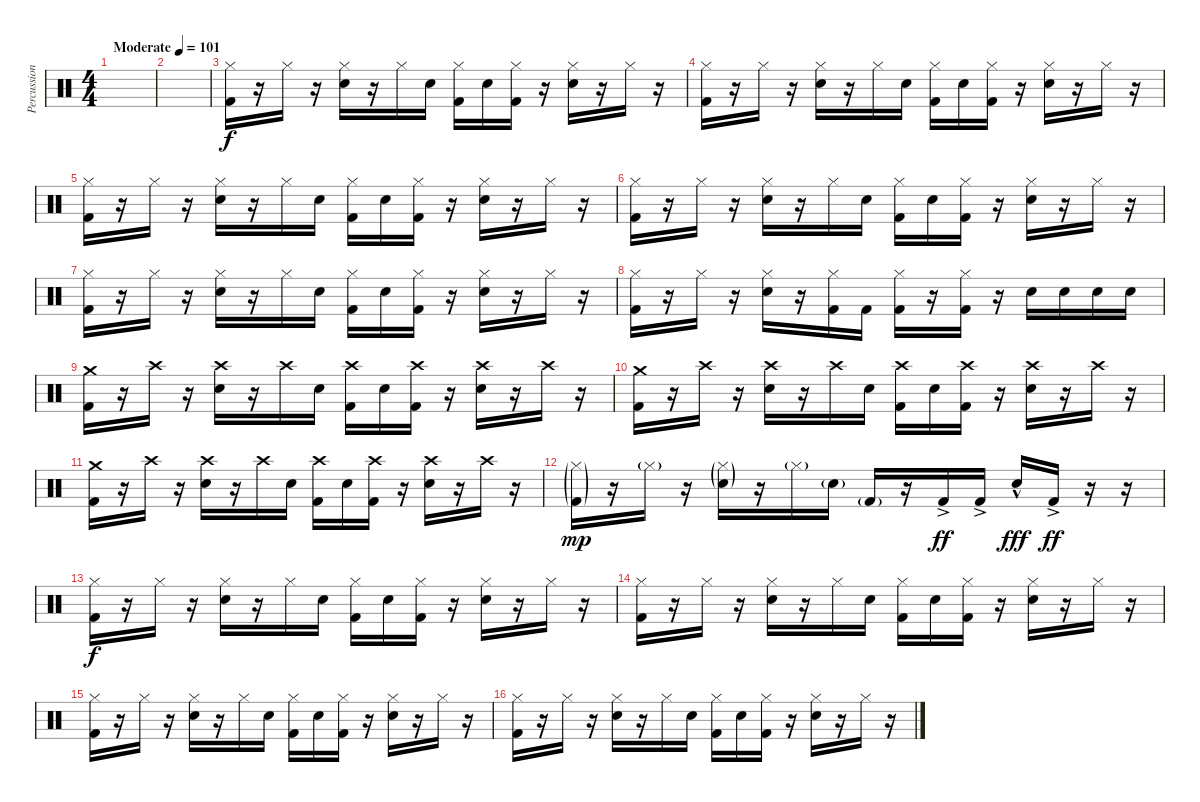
\track ("Percussioni" "Percussion") {instrument percussion}
\staff {score}
\articulation defaults
\ts (4 4)
\tempo (101 "Moderate")
\clef neutral
\ks c
|
|
("Hi-Hat (closed)" "Kick (hit) 2").16 r.16 "Hi-Hat (closed)".16 r.16 ("Hi-Hat (closed)" "Electric Snare (hit)").16 r.16 "Hi-Hat (closed)".16 "Electric Snare (hit)".16 ("Hi-Hat (closed)" "Kick (hit) 2").16 "Electric Snare (hit)".16 ("Hi-Hat (closed)" "Kick (hit) 2").16 r.16 ("Hi-Hat (closed)" "Electric Snare (hit)").16 r.16 "Hi-Hat (closed)".16 r.16 |
("Hi-Hat (closed)" "Kick (hit) 2").16 r.16 "Hi-Hat (closed)".16 r.16 ("Hi-Hat (closed)" "Electric Snare (hit)").16 r.16 "Hi-Hat (closed)".16 "Electric Snare (hit)".16 ("Hi-Hat (closed)" "Kick (hit) 2").16 "Electric Snare (hit)".16 ("Hi-Hat (closed)" "Kick (hit) 2").16 r.16 ("Hi-Hat (closed)" "Electric Snare (hit)").16 r.16 "Hi-Hat (closed)".16 r.16 |
("Hi-Hat (closed)" "Kick (hit) 2").16 r.16 "Hi-Hat (closed)".16 r.16 ("Hi-Hat (closed)" "Electric Snare (hit)").16 r.16 "Hi-Hat (closed)".16 "Electric Snare (hit)".16 ("Hi-Hat (closed)" "Kick (hit) 2").16 "Electric Snare (hit)".16 ("Hi-Hat (closed)" "Kick (hit) 2").16 r.16 ("Hi-Hat (closed)" "Electric Snare (hit)").16 r.16 "Hi-Hat (closed)".16 r.16 |
("Hi-Hat (closed)" "Kick (hit) 2").16 r.16 "Hi-Hat (closed)".16 r.16 ("Hi-Hat (closed)" "Electric Snare (hit)").16 r.16 "Hi-Hat (closed)".16 "Electric Snare (hit)".16 ("Hi-Hat (closed)" "Kick (hit) 2").16 "Electric Snare (hit)".16 ("Hi-Hat (closed)" "Kick (hit) 2").16 r.16 ("Hi-Hat (closed)" "Electric Snare (hit)").16 r.16 "Hi-Hat (closed)".16 r.16 |
("Hi-Hat (closed)" "Kick (hit) 2").16 r.16 "Hi-Hat (closed)".16 r.16 ("Hi-Hat (closed)" "Electric Snare (hit)").16 r.16 "Hi-Hat (closed)".16 "Electric Snare (hit)".16 ("Hi-Hat (closed)" "Kick (hit) 2").16 "Electric Snare (hit)".16 ("Hi-Hat (closed)" "Kick (hit) 2").16 r.16 ("Hi-Hat (closed)" "Electric Snare (hit)").16 r.16 "Hi-Hat (closed)".16 r.16 |
("Hi-Hat (closed)" "Kick (hit) 2").16 r.16 "Hi-Hat (closed)".16 r.16 ("Hi-Hat (closed)" "Electric Snare (hit)").16 r.16 ("Hi-Hat (closed)" "Kick (hit) 2").16 "Kick (hit) 2".16 ("Hi-Hat (closed)" "Kick (hit) 2").16 r.16 ("Hi-Hat (closed)" "Kick (hit) 2").16 r.16 "Electric Snare (hit)".16 "Electric Snare (hit)".16 "Electric Snare (hit)".16 "Electric Snare (hit)".16 |
("Crash medium (hit)" "Kick (hit) 2").16 r.16 "Crash high (hit)".16 r.16 ("Crash high (hit)" "Electric Snare (hit)").16 r.16 "Crash high (hit)".16 "Electric Snare (hit)".16 ("Crash high (hit)" "Kick (hit) 2").16 "Electric Snare (hit)".16 ("Crash high (hit)" "Kick (hit) 2").16 r.16 ("Crash high (hit)" "Electric Snare (hit)").16 r.16 "Crash high (hit)".16 r.16 |
("Crash medium (hit)" "Kick (hit) 2").16 r.16 "Crash high (hit)".16 r.16 ("Crash high (hit)" "Electric Snare (hit)").16 r.16 "Crash high (hit)".16 "Electric Snare (hit)".16 ("Crash high (hit)" "Kick (hit) 2").16 "Electric Snare (hit)".16 ("Crash high (hit)" "Kick (hit) 2").16 r.16 ("Crash high (hit)" "Electric Snare (hit)").16 r.16 "Crash high (hit)".16 r.16 |
("Crash medium (hit)" "Kick (hit) 2").16 r.16 "Crash high (hit)".16 r.16 ("Crash high (hit)" "Electric Snare (hit)").16 r.16 "Crash high (hit)".16 "Electric Snare (hit)".16 ("Crash high (hit)" "Kick (hit) 2").16 "Electric Snare (hit)".16 ("Crash high (hit)" "Kick (hit) 2").16 r.16 ("Crash high (hit)" "Electric Snare (hit)").16 r.16 "Crash high (hit)".16 r.16 |
("Hi-Hat (closed)"{g} "Kick (hit) 2"{g}).16{dy mp} r.16 "Hi-Hat (closed)"{g}.16 r.16 ("Hi-Hat (closed)"{g} "Electric Snare (hit)"{g}).16 r.16 "Hi-Hat (closed)"{g}.16 "Electric Snare (hit)"{g}.16 "Kick (hit) 2"{g}.16 r.16 "Kick (hit) 2"{ac}.16{dy ff} "Kick (hit) 2"{ac}.16 "Electric Snare (hit)"{hac}.16{dy fff} "Kick (hit) 2"{ac}.16{dy ff} r.16 r.16 |
("Hi-Hat (closed)" "Kick (hit) 2").16{dy f} r.16 "Hi-Hat (closed)".16 r.16 ("Hi-Hat (closed)" "Electric Snare (hit)").16 r.16 "Hi-Hat (closed)".16 "Electric Snare (hit)".16 ("Hi-Hat (closed)" "Kick (hit) 2").16 "Electric Snare (hit)".16 ("Hi-Hat (closed)" "Kick (hit) 2").16 r.16 ("Hi-Hat (closed)" "Electric Snare (hit)").16 r.16 "Hi-Hat (closed)".16 r.16 |
("Hi-Hat (closed)" "Kick (hit) 2").16 r.16 "Hi-Hat (closed)".16 r.16 ("Hi-Hat (closed)" "Electric Snare (hit)").16 r.16 "Hi-Hat (closed)".16 "Electric Snare (hit)".16 ("Hi-Hat (closed)" "Kick (hit) 2").16 "Electric Snare (hit)".16 ("Hi-Hat (closed)" "Kick (hit) 2").16 r.16 ("Hi-Hat (closed)" "Electric Snare (hit)").16 r.16 "Hi-Hat (closed)".16 r.16 |
("Hi-Hat (closed)" "Kick (hit) 2").16 r.16 "Hi-Hat (closed)".16 r.16 ("Hi-Hat (closed)" "Electric Snare (hit)").16 r.16 "Hi-Hat (closed)".16 "Electric Snare (hit)".16 ("Hi-Hat (closed)" "Kick (hit) 2").16 "Electric Snare (hit)".16 ("Hi-Hat (closed)" "Kick (hit) 2").16 r.16 ("Hi-Hat (closed)" "Electric Snare (hit)").16 r.16 "Hi-Hat (closed)".16 r.16 |
("Hi-Hat (closed)" "Kick (hit) 2").16 r.16 "Hi-Hat (closed)".16 r.16 ("Hi-Hat (closed)" "Electric Snare (hit)").16 r.16 "Hi-Hat (closed)".16 "Electric Snare (hit)".16 ("Hi-Hat (closed)" "Kick (hit) 2").16 "Electric Snare (hit)".16 ("Hi-Hat (closed)" "Kick (hit) 2").16 r.16 ("Hi-Hat (closed)" "Electric Snare (hit)").16 r.16 "Hi-Hat (closed)".16 r.16
